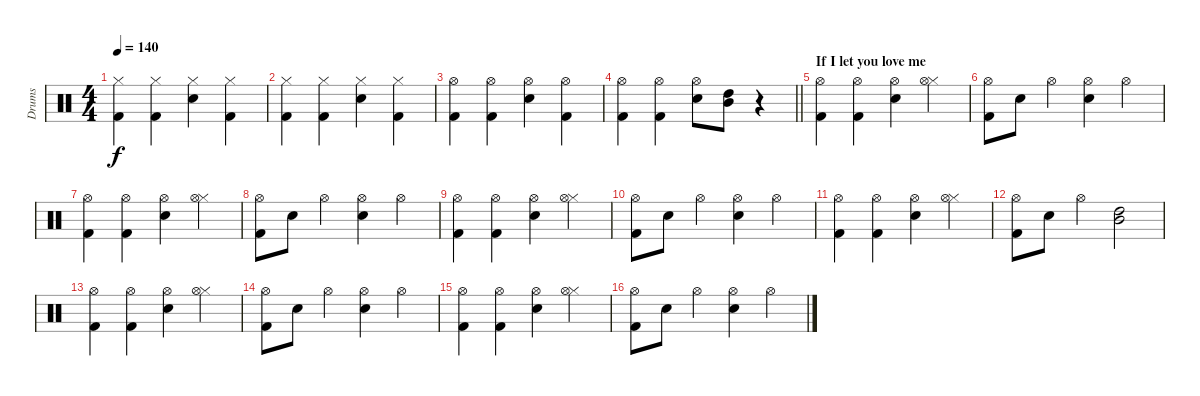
\track ("Drums" "Drums") {instrument percussion}
\staff {score}
\articulation defaults
\ts (4 4)
\tempo 140
\clef neutral
\ks c
("Kick (hit) 2" "Hi-Hat (closed)").4{dy f} ("Kick (hit) 2" "Hi-Hat (closed)").4 ("Electric Snare (hit)" "Hi-Hat (closed)").4 ("Hi-Hat (closed)" "Kick (hit) 2").4 |
("Kick (hit) 2" "Hi-Hat (closed)").4 ("Kick (hit) 2" "Hi-Hat (closed)").4 ("Electric Snare (hit)" "Hi-Hat (closed)").4 ("Hi-Hat (closed)" "Kick (hit) 2").4 |
("Kick (hit) 2" "Hi-Hat (open)").4 ("Kick (hit) 2" "Hi-Hat (open)").4 ("Electric Snare (hit)" "Hi-Hat (open)").4 ("Kick (hit) 2" "Hi-Hat (open)").4 |
\barLineRight lightlight
("Kick (hit) 2" "Hi-Hat (open)").4 ("Hi-Hat (open)" "Kick (hit) 2").4 ("Electric Snare (hit)" "Hi-Hat (open)").8 ("Mid Tom (hit)" "High Tom (hit)").8 r.4 |
\section ("" "If I let you love me")
("Kick (hit) 2" "Hi-Hat (open)").4 ("Kick (hit) 2" "Hi-Hat (open)").4 ("Electric Snare (hit)" "Hi-Hat (open)").4 ("Hi-Hat (closed)" "Hi-Hat (open)").4 |
("Kick (hit) 2" "Hi-Hat (open)").8 "Electric Snare (hit)".8 "Hi-Hat (open)".4 ("Electric Snare (hit)" "Hi-Hat (open)").4 "Hi-Hat (open)".4 |
("Kick (hit) 2" "Hi-Hat (open)").4 ("Kick (hit) 2" "Hi-Hat (open)").4 ("Electric Snare (hit)" "Hi-Hat (open)").4 ("Hi-Hat (closed)" "Hi-Hat (open)").4 |
("Kick (hit) 2" "Hi-Hat (open)").8 "Electric Snare (hit)".8 "Hi-Hat (open)".4 ("Electric Snare (hit)" "Hi-Hat (open)").4 "Hi-Hat (open)".4 |
("Kick (hit) 2" "Hi-Hat (open)").4 ("Kick (hit) 2" "Hi-Hat (open)").4 ("Electric Snare (hit)" "Hi-Hat (open)").4 ("Hi-Hat (closed)" "Hi-Hat (open)").4 |
("Kick (hit) 2" "Hi-Hat (open)").8 "Electric Snare (hit)".8 "Hi-Hat (open)".4 ("Electric Snare (hit)" "Hi-Hat (open)").4 "Hi-Hat (open)".4 |
("Kick (hit) 2" "Hi-Hat (open)").4 ("Kick (hit) 2" "Hi-Hat (open)").4 ("Electric Snare (hit)" "Hi-Hat (open)").4 ("Hi-Hat (closed)" "Hi-Hat (open)").4 |
("Kick (hit) 2" "Hi-Hat (open)").8 "Electric Snare (hit)".8 "Hi-Hat (open)".4 ("Mid Tom (hit)" "High Tom (hit)").2 |
("Kick (hit) 2" "Hi-Hat (open)").4 ("Kick (hit) 2" "Hi-Hat (open)").4 ("Electric Snare (hit)" "Hi-Hat (open)").4 ("Hi-Hat (closed)" "Hi-Hat (open)").4 |
("Kick (hit) 2" "Hi-Hat (open)").8 "Electric Snare (hit)".8 "Hi-Hat (open)".4 ("Electric Snare (hit)" "Hi-Hat (open)").4 "Hi-Hat (open)".4 |
("Kick (hit) 2" "Hi-Hat (open)").4 ("Kick (hit) 2" "Hi-Hat (open)").4 ("Electric Snare (hit)" "Hi-Hat (open)").4 ("Hi-Hat (closed)" "Hi-Hat (open)").4 |
("Kick (hit) 2" "Hi-Hat (open)").8 "Electric Snare (hit)".8 "Hi-Hat (open)".4 ("Electric Snare (hit)" "Hi-Hat (open)").4 "Hi-Hat (open)".4
